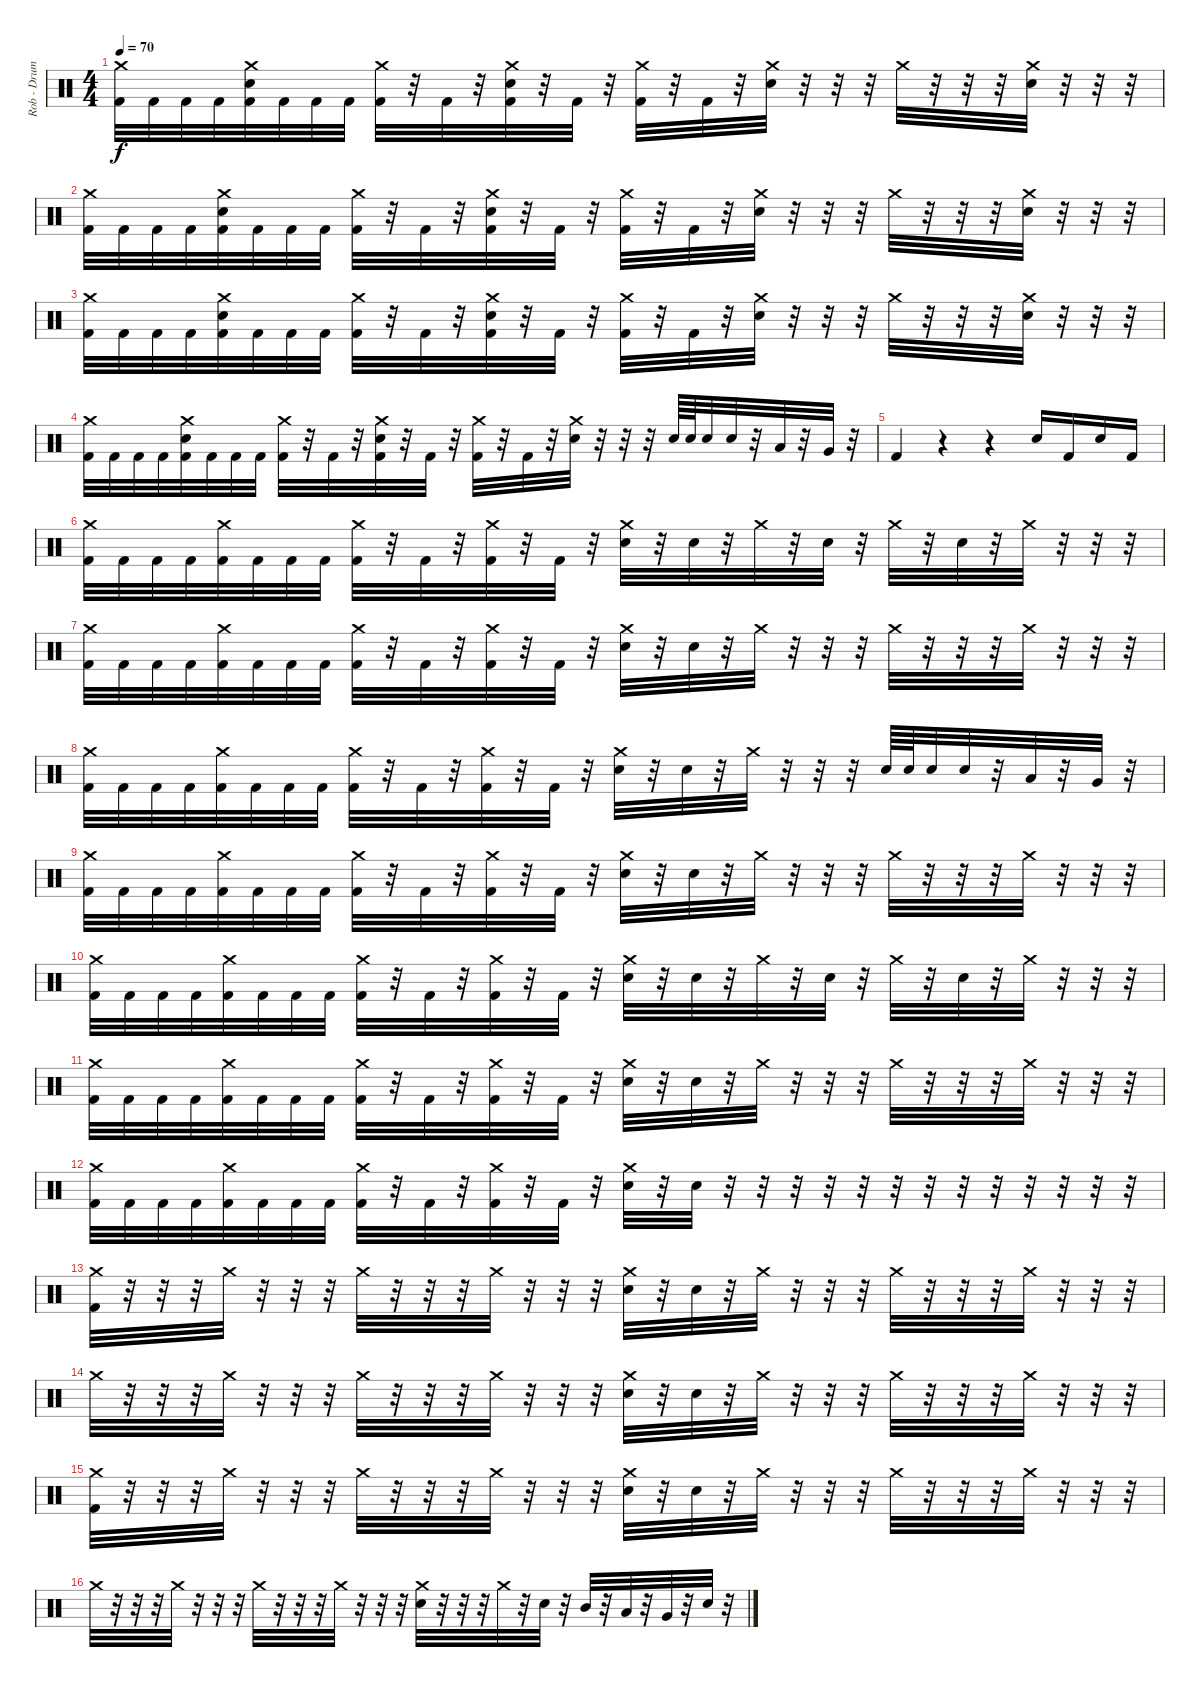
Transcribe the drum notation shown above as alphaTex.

\track ("Rob - Drums" "Rob - Drum") {instrument percussion}
\staff {score}
\articulation defaults
\ts (4 4)
\tempo 70
\clef neutral
\ks c
("Crash medium (hit)" "Kick (hit) 2").32{dy f volume 16} "Kick (hit) 2".32 "Kick (hit) 2".32 "Kick (hit) 2".32 ("Crash medium (hit)" "Electric Snare (hit)" "Kick (hit) 2").32 "Kick (hit) 2".32 "Kick (hit) 2".32 "Kick (hit) 2".32 ("Crash medium (hit)" "Kick (hit) 2").32 r.32 "Kick (hit) 2".32 r.32 ("Crash medium (hit)" "Electric Snare (hit)" "Kick (hit) 2").32 r.32 "Kick (hit) 2".32 r.32 ("Crash medium (hit)" "Kick (hit) 2").32 r.32 "Kick (hit) 2".32 r.32 ("Crash medium (hit)" "Electric Snare (hit)").32 r.32 r.32 r.32 "Crash medium (hit)".32 r.32 r.32 r.32 ("Crash medium (hit)" "Electric Snare (hit)").32 r.32 r.32 r.32 |
("Crash medium (hit)" "Kick (hit) 2").32 "Kick (hit) 2".32 "Kick (hit) 2".32 "Kick (hit) 2".32 ("Crash medium (hit)" "Electric Snare (hit)" "Kick (hit) 2").32 "Kick (hit) 2".32 "Kick (hit) 2".32 "Kick (hit) 2".32 ("Crash medium (hit)" "Kick (hit) 2").32 r.32 "Kick (hit) 2".32 r.32 ("Crash medium (hit)" "Electric Snare (hit)" "Kick (hit) 2").32 r.32 "Kick (hit) 2".32 r.32 ("Crash medium (hit)" "Kick (hit) 2").32 r.32 "Kick (hit) 2".32 r.32 ("Crash medium (hit)" "Electric Snare (hit)").32 r.32 r.32 r.32 "Crash medium (hit)".32 r.32 r.32 r.32 ("Crash medium (hit)" "Electric Snare (hit)").32 r.32 r.32 r.32 |
("Crash medium (hit)" "Kick (hit) 2").32{volume 16} "Kick (hit) 2".32 "Kick (hit) 2".32 "Kick (hit) 2".32 ("Crash medium (hit)" "Electric Snare (hit)" "Kick (hit) 2").32 "Kick (hit) 2".32 "Kick (hit) 2".32 "Kick (hit) 2".32 ("Crash medium (hit)" "Kick (hit) 2").32 r.32 "Kick (hit) 2".32 r.32 ("Crash medium (hit)" "Electric Snare (hit)" "Kick (hit) 2").32 r.32 "Kick (hit) 2".32 r.32 ("Crash medium (hit)" "Kick (hit) 2").32 r.32 "Kick (hit) 2".32 r.32 ("Crash medium (hit)" "Electric Snare (hit)").32 r.32 r.32 r.32 "Crash medium (hit)".32 r.32 r.32 r.32 ("Crash medium (hit)" "Electric Snare (hit)").32 r.32 r.32 r.32 |
("Crash medium (hit)" "Kick (hit) 2").32 "Kick (hit) 2".32 "Kick (hit) 2".32 "Kick (hit) 2".32 ("Crash medium (hit)" "Electric Snare (hit)" "Kick (hit) 2").32 "Kick (hit) 2".32 "Kick (hit) 2".32 "Kick (hit) 2".32 ("Crash medium (hit)" "Kick (hit) 2").32 r.32 "Kick (hit) 2".32 r.32 ("Crash medium (hit)" "Electric Snare (hit)" "Kick (hit) 2").32 r.32 "Kick (hit) 2".32 r.32 ("Crash medium (hit)" "Kick (hit) 2").32 r.32 "Kick (hit) 2".32 r.32 ("Crash medium (hit)" "Electric Snare (hit)").32 r.32 r.32 r.32 "Electric Snare (hit)".64 "Electric Snare (hit)".64 "Electric Snare (hit)".32 "Electric Snare (hit)".32 r.32 "Low Tom (hit)".32 r.32 "Very Low Tom (hit)".32 r.32 |
"Kick (hit) 2".4 r.4 r.4 "Electric Snare (hit)".16 "Kick (hit) 2".16 "Electric Snare (hit)".16 "Kick (hit) 2".16 |
("Crash medium (hit)" "Kick (hit) 2").32{volume 16} "Kick (hit) 2".32 "Kick (hit) 2".32 "Kick (hit) 2".32 ("Crash medium (hit)" "Kick (hit) 2").32 "Kick (hit) 2".32 "Kick (hit) 2".32 "Kick (hit) 2".32 ("Crash medium (hit)" "Kick (hit) 2").32 r.32 "Kick (hit) 2".32 r.32 ("Crash medium (hit)" "Kick (hit) 2").32 r.32 "Kick (hit) 2".32 r.32 ("Crash medium (hit)" "Electric Snare (hit)").32 r.32 "Electric Snare (hit)".32 r.32 "Crash medium (hit)".32 r.32 "Electric Snare (hit)".32 r.32 "Crash medium (hit)".32 r.32 "Electric Snare (hit)".32 r.32 "Crash medium (hit)".32 r.32 r.32 r.32 |
("Crash medium (hit)" "Kick (hit) 2").32{volume 16} "Kick (hit) 2".32 "Kick (hit) 2".32 "Kick (hit) 2".32 ("Crash medium (hit)" "Kick (hit) 2").32 "Kick (hit) 2".32 "Kick (hit) 2".32 "Kick (hit) 2".32 ("Crash medium (hit)" "Kick (hit) 2").32 r.32 "Kick (hit) 2".32 r.32 ("Crash medium (hit)" "Kick (hit) 2").32 r.32 "Kick (hit) 2".32 r.32 ("Crash medium (hit)" "Electric Snare (hit)").32 r.32 "Electric Snare (hit)".32 r.32 "Crash medium (hit)".32 r.32 r.32 r.32 "Crash medium (hit)".32 r.32 r.32 r.32 "Crash medium (hit)".32 r.32 r.32 r.32 |
("Crash medium (hit)" "Kick (hit) 2").32 "Kick (hit) 2".32 "Kick (hit) 2".32 "Kick (hit) 2".32 ("Crash medium (hit)" "Kick (hit) 2").32 "Kick (hit) 2".32 "Kick (hit) 2".32 "Kick (hit) 2".32 ("Crash medium (hit)" "Kick (hit) 2").32 r.32 "Kick (hit) 2".32 r.32 ("Crash medium (hit)" "Kick (hit) 2").32 r.32 "Kick (hit) 2".32 r.32 ("Crash medium (hit)" "Electric Snare (hit)").32 r.32 "Electric Snare (hit)".32 r.32 "Crash medium (hit)".32 r.32 r.32 r.32 "Electric Snare (hit)".64 "Electric Snare (hit)".64 "Electric Snare (hit)".32 "Electric Snare (hit)".32 r.32 "Low Tom (hit)".32 r.32 "Very Low Tom (hit)".32 r.32 |
("Crash medium (hit)" "Kick (hit) 2").32{volume 16} "Kick (hit) 2".32 "Kick (hit) 2".32 "Kick (hit) 2".32 ("Crash medium (hit)" "Kick (hit) 2").32 "Kick (hit) 2".32 "Kick (hit) 2".32 "Kick (hit) 2".32 ("Crash medium (hit)" "Kick (hit) 2").32 r.32 "Kick (hit) 2".32 r.32 ("Crash medium (hit)" "Kick (hit) 2").32 r.32 "Kick (hit) 2".32 r.32 ("Crash medium (hit)" "Electric Snare (hit)").32 r.32 "Electric Snare (hit)".32 r.32 "Crash medium (hit)".32 r.32 r.32 r.32 "Crash medium (hit)".32 r.32 r.32 r.32 "Crash medium (hit)".32 r.32 r.32 r.32 |
("Crash medium (hit)" "Kick (hit) 2").32{volume 16} "Kick (hit) 2".32 "Kick (hit) 2".32 "Kick (hit) 2".32 ("Crash medium (hit)" "Kick (hit) 2").32 "Kick (hit) 2".32 "Kick (hit) 2".32 "Kick (hit) 2".32 ("Crash medium (hit)" "Kick (hit) 2").32 r.32 "Kick (hit) 2".32 r.32 ("Crash medium (hit)" "Kick (hit) 2").32 r.32 "Kick (hit) 2".32 r.32 ("Crash medium (hit)" "Electric Snare (hit)").32 r.32 "Electric Snare (hit)".32 r.32 "Crash medium (hit)".32 r.32 "Electric Snare (hit)".32 r.32 "Crash medium (hit)".32 r.32 "Electric Snare (hit)".32 r.32 "Crash medium (hit)".32 r.32 r.32 r.32 |
("Crash medium (hit)" "Kick (hit) 2").32{volume 16} "Kick (hit) 2".32 "Kick (hit) 2".32 "Kick (hit) 2".32 ("Crash medium (hit)" "Kick (hit) 2").32 "Kick (hit) 2".32 "Kick (hit) 2".32 "Kick (hit) 2".32 ("Crash medium (hit)" "Kick (hit) 2").32 r.32 "Kick (hit) 2".32 r.32 ("Crash medium (hit)" "Kick (hit) 2").32 r.32 "Kick (hit) 2".32 r.32 ("Crash medium (hit)" "Electric Snare (hit)").32 r.32 "Electric Snare (hit)".32 r.32 "Crash medium (hit)".32 r.32 r.32 r.32 "Crash medium (hit)".32 r.32 r.32 r.32 "Crash medium (hit)".32 r.32 r.32 r.32 |
("Crash medium (hit)" "Kick (hit) 2").32{volume 16} "Kick (hit) 2".32 "Kick (hit) 2".32 "Kick (hit) 2".32 ("Crash medium (hit)" "Kick (hit) 2").32 "Kick (hit) 2".32 "Kick (hit) 2".32 "Kick (hit) 2".32 ("Crash medium (hit)" "Kick (hit) 2").32 r.32 "Kick (hit) 2".32 r.32 ("Crash medium (hit)" "Kick (hit) 2").32 r.32 "Kick (hit) 2".32 r.32 ("Crash medium (hit)" "Electric Snare (hit)").32 r.32 "Electric Snare (hit)".32 r.32 r.32 r.32 r.32 r.32 r.32 r.32 r.32 r.32 r.32 r.32 r.32 r.32 |
("Crash medium (hit)" "Kick (hit) 2").32{volume 12} r.32 r.32 r.32 "Crash medium (hit)".32 r.32 r.32 r.32 "Crash medium (hit)".32 r.32 r.32 r.32 "Crash medium (hit)".32 r.32 r.32 r.32 ("Crash medium (hit)" "Electric Snare (hit)").32 r.32 "Electric Snare (hit)".32 r.32 "Crash medium (hit)".32 r.32 r.32 r.32 "Crash medium (hit)".32 r.32 r.32 r.32 "Crash medium (hit)".32 r.32 r.32 r.32 |
"Crash medium (hit)".32 r.32 r.32 r.32 "Crash medium (hit)".32 r.32 r.32 r.32 "Crash medium (hit)".32 r.32 r.32 r.32 "Crash medium (hit)".32 r.32 r.32 r.32 ("Crash medium (hit)" "Electric Snare (hit)").32 r.32 "Electric Snare (hit)".32 r.32 "Crash medium (hit)".32 r.32 r.32 r.32 "Crash medium (hit)".32 r.32 r.32 r.32 "Crash medium (hit)".32 r.32 r.32 r.32 |
("Crash medium (hit)" "Kick (hit) 2").32 r.32 r.32 r.32 "Crash medium (hit)".32 r.32 r.32 r.32 "Crash medium (hit)".32 r.32 r.32 r.32 "Crash medium (hit)".32 r.32 r.32 r.32 ("Crash medium (hit)" "Electric Snare (hit)").32 r.32 "Electric Snare (hit)".32 r.32 "Crash medium (hit)".32 r.32 r.32 r.32 "Crash medium (hit)".32 r.32 r.32 r.32 "Crash medium (hit)".32 r.32 r.32 r.32 |
"Crash medium (hit)".32 r.32 r.32 r.32 "Crash medium (hit)".32 r.32 r.32 r.32 "Crash medium (hit)".32 r.32 r.32 r.32 "Crash medium (hit)".32 r.32 r.32 r.32 ("Crash medium (hit)" "Electric Snare (hit)").32 r.32 r.32 r.32 "Crash medium (hit)".32 r.32 "Electric Snare (hit)".32 r.32 "Mid Tom (hit)".32 r.32 "Low Tom (hit)".32 r.32 "Very Low Tom (hit)".32 r.32 "Electric Snare (hit)".32 r.32
